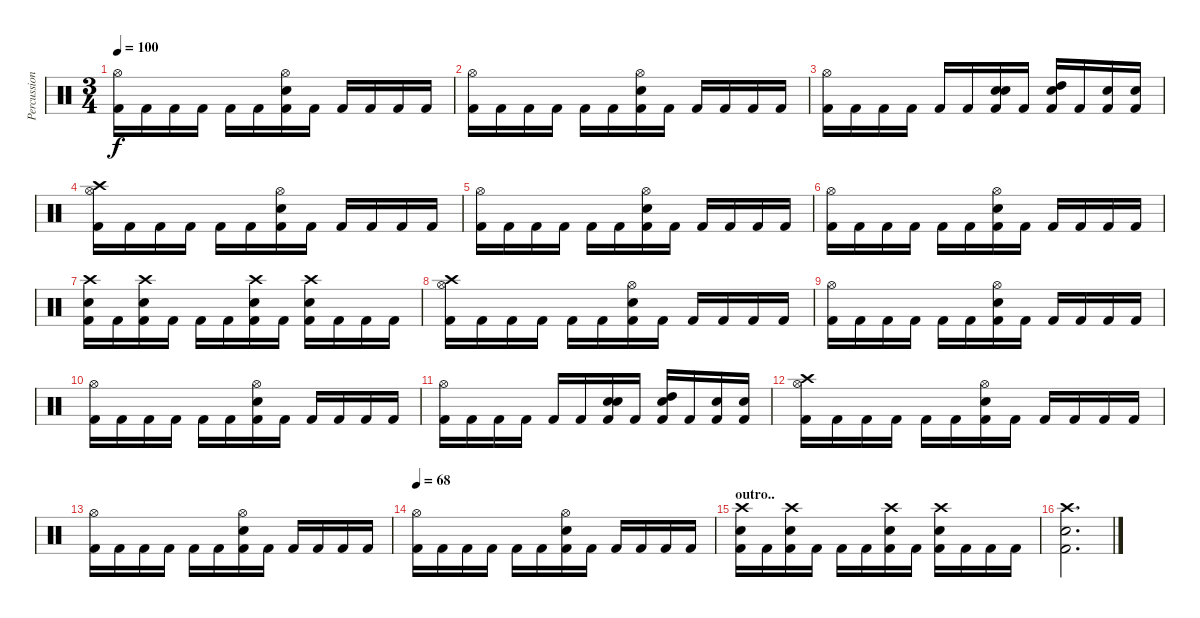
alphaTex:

\track ("Percussions" "Percussion") {instrument percussion}
\staff {score}
\articulation defaults
\ts (3 4)
\tempo 100
\clef neutral
\ks c
("Hi-Hat (open)" "Kick (hit) 2").16{dy f} "Kick (hit) 2".16 "Kick (hit) 2".16 "Kick (hit) 2".16 "Kick (hit) 2".16 "Kick (hit) 2".16 ("Hi-Hat (open)" "Electric Snare (hit)" "Kick (hit) 2").16 "Kick (hit) 2".16 "Kick (hit) 2".16 "Kick (hit) 2".16 "Kick (hit) 2".16 "Kick (hit) 2".16 |
("Hi-Hat (open)" "Kick (hit) 2").16 "Kick (hit) 2".16 "Kick (hit) 2".16 "Kick (hit) 2".16 "Kick (hit) 2".16 "Kick (hit) 2".16 ("Hi-Hat (open)" "Electric Snare (hit)" "Kick (hit) 2").16 "Kick (hit) 2".16 "Kick (hit) 2".16 "Kick (hit) 2".16 "Kick (hit) 2".16 "Kick (hit) 2".16 |
("Hi-Hat (open)" "Kick (hit) 2").16 "Kick (hit) 2".16 "Kick (hit) 2".16 "Kick (hit) 2".16 "Kick (hit) 2".16 "Kick (hit) 2".16 ("Electric Snare (hit)" "Electric Snare (hit)" "Kick (hit) 2").16{bd 60} "Kick (hit) 2".16 ("Electric Snare (hit)" "High Tom (hit)" "Kick (hit) 2").16{bd 60} "Kick (hit) 2".16 ("Electric Snare (hit)" "Kick (hit) 2").16 ("Electric Snare (hit)" "Kick (hit) 2").16 |
("Crash high (hit)" "Hi-Hat (open)" "Kick (hit) 2").16 "Kick (hit) 2".16 "Kick (hit) 2".16 "Kick (hit) 2".16 "Kick (hit) 2".16 "Kick (hit) 2".16 ("Hi-Hat (open)" "Electric Snare (hit)" "Kick (hit) 2").16 "Kick (hit) 2".16 "Kick (hit) 2".16 "Kick (hit) 2".16 "Kick (hit) 2".16 "Kick (hit) 2".16 |
("Hi-Hat (open)" "Kick (hit) 2").16 "Kick (hit) 2".16 "Kick (hit) 2".16 "Kick (hit) 2".16 "Kick (hit) 2".16 "Kick (hit) 2".16 ("Hi-Hat (open)" "Electric Snare (hit)" "Kick (hit) 2").16 "Kick (hit) 2".16 "Kick (hit) 2".16 "Kick (hit) 2".16 "Kick (hit) 2".16 "Kick (hit) 2".16 |
("Hi-Hat (open)" "Kick (hit) 2").16 "Kick (hit) 2".16 "Kick (hit) 2".16 "Kick (hit) 2".16 "Kick (hit) 2".16 "Kick (hit) 2".16 ("Hi-Hat (open)" "Electric Snare (hit)" "Kick (hit) 2").16 "Kick (hit) 2".16 "Kick (hit) 2".16 "Kick (hit) 2".16 "Kick (hit) 2".16 "Kick (hit) 2".16 |
("Crash high (hit)" "Electric Snare (hit)" "Kick (hit) 2").16 "Kick (hit) 2".16 ("Crash high (hit)" "Electric Snare (hit)" "Kick (hit) 2").16 "Kick (hit) 2".16 "Kick (hit) 2".16 "Kick (hit) 2".16 ("Crash high (hit)" "Electric Snare (hit)" "Kick (hit) 2").16{bd 60} "Kick (hit) 2".16 ("Crash high (hit)" "Electric Snare (hit)" "Kick (hit) 2").16{bd 60} "Kick (hit) 2".16 "Kick (hit) 2".16 "Kick (hit) 2".16 |
("Crash high (hit)" "Hi-Hat (open)" "Kick (hit) 2").16 "Kick (hit) 2".16 "Kick (hit) 2".16 "Kick (hit) 2".16 "Kick (hit) 2".16 "Kick (hit) 2".16 ("Hi-Hat (open)" "Electric Snare (hit)" "Kick (hit) 2").16 "Kick (hit) 2".16 "Kick (hit) 2".16 "Kick (hit) 2".16 "Kick (hit) 2".16 "Kick (hit) 2".16 |
("Hi-Hat (open)" "Kick (hit) 2").16 "Kick (hit) 2".16 "Kick (hit) 2".16 "Kick (hit) 2".16 "Kick (hit) 2".16 "Kick (hit) 2".16 ("Hi-Hat (open)" "Electric Snare (hit)" "Kick (hit) 2").16 "Kick (hit) 2".16 "Kick (hit) 2".16 "Kick (hit) 2".16 "Kick (hit) 2".16 "Kick (hit) 2".16 |
("Hi-Hat (open)" "Kick (hit) 2").16 "Kick (hit) 2".16 "Kick (hit) 2".16 "Kick (hit) 2".16 "Kick (hit) 2".16 "Kick (hit) 2".16 ("Hi-Hat (open)" "Electric Snare (hit)" "Kick (hit) 2").16 "Kick (hit) 2".16 "Kick (hit) 2".16 "Kick (hit) 2".16 "Kick (hit) 2".16 "Kick (hit) 2".16 |
("Hi-Hat (open)" "Kick (hit) 2").16 "Kick (hit) 2".16 "Kick (hit) 2".16 "Kick (hit) 2".16 "Kick (hit) 2".16 "Kick (hit) 2".16 ("Electric Snare (hit)" "Electric Snare (hit)" "Kick (hit) 2").16{bd 60} "Kick (hit) 2".16 ("Electric Snare (hit)" "High Tom (hit)" "Kick (hit) 2").16{bd 60} "Kick (hit) 2".16 ("Electric Snare (hit)" "Kick (hit) 2").16 ("Electric Snare (hit)" "Kick (hit) 2").16 |
("Crash high (hit)" "Hi-Hat (open)" "Kick (hit) 2").16 "Kick (hit) 2".16 "Kick (hit) 2".16 "Kick (hit) 2".16 "Kick (hit) 2".16 "Kick (hit) 2".16 ("Hi-Hat (open)" "Electric Snare (hit)" "Kick (hit) 2").16 "Kick (hit) 2".16 "Kick (hit) 2".16 "Kick (hit) 2".16 "Kick (hit) 2".16 "Kick (hit) 2".16 |
("Hi-Hat (open)" "Kick (hit) 2").16 "Kick (hit) 2".16 "Kick (hit) 2".16 "Kick (hit) 2".16 "Kick (hit) 2".16 "Kick (hit) 2".16 ("Hi-Hat (open)" "Electric Snare (hit)" "Kick (hit) 2").16 "Kick (hit) 2".16 "Kick (hit) 2".16 "Kick (hit) 2".16 "Kick (hit) 2".16 "Kick (hit) 2".16 |
\tempo 68
("Hi-Hat (open)" "Kick (hit) 2").16 "Kick (hit) 2".16 "Kick (hit) 2".16 "Kick (hit) 2".16 "Kick (hit) 2".16 "Kick (hit) 2".16 ("Hi-Hat (open)" "Electric Snare (hit)" "Kick (hit) 2").16 "Kick (hit) 2".16 "Kick (hit) 2".16 "Kick (hit) 2".16 "Kick (hit) 2".16 "Kick (hit) 2".16 |
\section ("" "outro..")
("Crash high (hit)" "Electric Snare (hit)" "Kick (hit) 2").16 "Kick (hit) 2".16 ("Crash high (hit)" "Electric Snare (hit)" "Kick (hit) 2").16 "Kick (hit) 2".16 "Kick (hit) 2".16 "Kick (hit) 2".16 ("Crash high (hit)" "Electric Snare (hit)" "Kick (hit) 2").16{bd 60} "Kick (hit) 2".16 ("Crash high (hit)" "Electric Snare (hit)" "Kick (hit) 2").16{bd 60} "Kick (hit) 2".16 "Kick (hit) 2".16 "Kick (hit) 2".16 |
("Crash high (hit)" "Electric Snare (hit)" "Kick (hit) 2").2{d}
